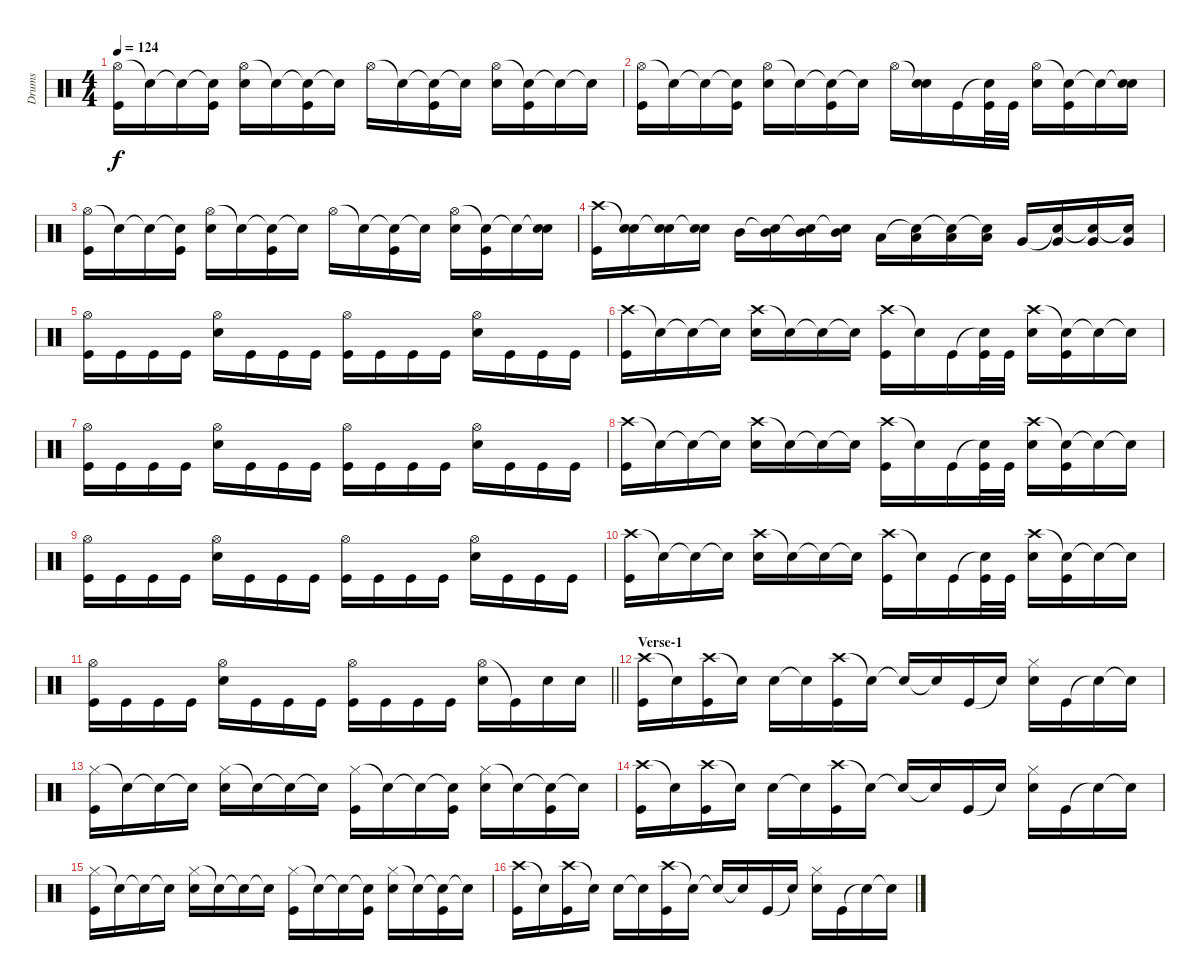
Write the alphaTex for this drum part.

\track ("Drums" "Drums") {instrument percussion}
\staff {score}
\articulation defaults
\ts (4 4)
\tempo 124
\clef neutral
\ks c
("Hi-Hat (open)" "Kick (hit)").16{dy f} "Snare (hit)"{t}.16 "Snare (hit)"{t}.16 ("Snare (hit)"{t} "Kick (hit)").16 ("Hi-Hat (open)" "Electric Snare (hit)").16 "Snare (hit)"{t}.16 ("Snare (hit)"{t} "Kick (hit)").16 "Snare (hit)"{t}.16 "Hi-Hat (open)".16 "Snare (hit)"{t}.16 ("Snare (hit)"{t} "Kick (hit)").16 "Snare (hit)"{t}.16 ("Hi-Hat (open)" "Electric Snare (hit)").16 ("Snare (hit)"{t} "Kick (hit)").16 "Snare (hit)"{t}.16 "Snare (hit)"{t}.16 |
("Hi-Hat (open)" "Kick (hit)").16 "Snare (hit)"{t}.16 "Snare (hit)"{t}.16 ("Snare (hit)"{t} "Kick (hit)").16 ("Hi-Hat (open)" "Electric Snare (hit)").16 "Snare (hit)"{t}.16 ("Snare (hit)"{t} "Kick (hit)").16 "Snare (hit)"{t}.16 "Hi-Hat (open)".16 ("Snare (hit)"{t} "Electric Snare (hit)").16 "Kick (hit)".16 ("Snare (hit)"{t} "Kick (hit)").32 "Kick (hit)".32 ("Hi-Hat (open)" "Electric Snare (hit)").16 ("Snare (hit)"{t} "Kick (hit)").16 "Snare (hit)"{t}.16 ("Snare (hit)"{t} "Electric Snare (hit)").16 |
("Hi-Hat (open)" "Kick (hit)").16 "Snare (hit)"{t}.16 "Snare (hit)"{t}.16 ("Snare (hit)"{t} "Kick (hit)").16 ("Hi-Hat (open)" "Electric Snare (hit)").16 "Snare (hit)"{t}.16 ("Snare (hit)"{t} "Kick (hit)").16 "Snare (hit)"{t}.16 "Hi-Hat (open)".16 "Snare (hit)"{t}.16 ("Snare (hit)"{t} "Kick (hit)").16 "Snare (hit)"{t}.16 ("Hi-Hat (open)" "Electric Snare (hit)").16 ("Snare (hit)"{t} "Kick (hit)").16 "Snare (hit)"{t}.16 ("Snare (hit)"{t} "Electric Snare (hit)").16 |
("Crash high (hit)" "Kick (hit)").16 ("Snare (hit)"{t} "Electric Snare (hit)").16 ("Snare (hit)"{t} "Electric Snare (hit)").16 ("Snare (hit)"{t} "Electric Snare (hit)").16 "Mid Tom (hit)".16 ("Snare (hit)"{t} "Mid Tom (hit)").16 ("Snare (hit)"{t} "Mid Tom (hit)").16 ("Snare (hit)"{t} "Mid Tom (hit)").16 "Low Tom (hit)".16 ("Snare (hit)"{t} "Low Tom (hit)").16 ("Snare (hit)"{t} "Low Tom (hit)").16 ("Snare (hit)"{t} "Low Tom (hit)").16 "Very Low Tom (hit)".16 ("Snare (hit)"{t} "Very Low Tom (hit)").16 ("Snare (hit)"{t} "Very Low Tom (hit)").16 ("Snare (hit)"{t} "Very Low Tom (hit)").16 |
("Hi-Hat (open)" "Kick (hit)").16 "Kick (hit)".16 "Kick (hit)".16 "Kick (hit)".16 ("Hi-Hat (open)" "Electric Snare (hit)").16 "Kick (hit)".16 "Kick (hit)".16 "Kick (hit)".16 ("Hi-Hat (open)" "Kick (hit)").16 "Kick (hit)".16 "Kick (hit)".16 "Kick (hit)".16 ("Hi-Hat (open)" "Electric Snare (hit)").16 "Kick (hit)".16 "Kick (hit)".16 "Kick (hit)".16 |
("Crash high (hit)" "Kick (hit)").16 "Snare (hit)"{t}.16 "Snare (hit)"{t}.16 "Snare (hit)"{t}.16 ("Crash high (hit)" "Electric Snare (hit)").16 "Snare (hit)"{t}.16 "Snare (hit)"{t}.16 "Snare (hit)"{t}.16 ("Crash high (hit)" "Kick (hit)").16 "Snare (hit)"{t}.16 "Kick (hit)".16 ("Snare (hit)"{t} "Kick (hit)").32 "Kick (hit)".32 ("Crash high (hit)" "Electric Snare (hit)").16 ("Snare (hit)"{t} "Kick (hit)").16 "Snare (hit)"{t}.16 "Snare (hit)"{t}.16 |
("Hi-Hat (open)" "Kick (hit)").16 "Kick (hit)".16 "Kick (hit)".16 "Kick (hit)".16 ("Hi-Hat (open)" "Electric Snare (hit)").16 "Kick (hit)".16 "Kick (hit)".16 "Kick (hit)".16 ("Hi-Hat (open)" "Kick (hit)").16 "Kick (hit)".16 "Kick (hit)".16 "Kick (hit)".16 ("Hi-Hat (open)" "Electric Snare (hit)").16 "Kick (hit)".16 "Kick (hit)".16 "Kick (hit)".16 |
("Crash high (hit)" "Kick (hit)").16 "Snare (hit)"{t}.16 "Snare (hit)"{t}.16 "Snare (hit)"{t}.16 ("Crash high (hit)" "Electric Snare (hit)").16 "Snare (hit)"{t}.16 "Snare (hit)"{t}.16 "Snare (hit)"{t}.16 ("Crash high (hit)" "Kick (hit)").16 "Snare (hit)"{t}.16 "Kick (hit)".16 ("Snare (hit)"{t} "Kick (hit)").32 "Kick (hit)".32 ("Crash high (hit)" "Electric Snare (hit)").16 ("Snare (hit)"{t} "Kick (hit)").16 "Snare (hit)"{t}.16 "Snare (hit)"{t}.16 |
("Hi-Hat (open)" "Kick (hit)").16 "Kick (hit)".16 "Kick (hit)".16 "Kick (hit)".16 ("Hi-Hat (open)" "Electric Snare (hit)").16 "Kick (hit)".16 "Kick (hit)".16 "Kick (hit)".16 ("Hi-Hat (open)" "Kick (hit)").16 "Kick (hit)".16 "Kick (hit)".16 "Kick (hit)".16 ("Hi-Hat (open)" "Electric Snare (hit)").16 "Kick (hit)".16 "Kick (hit)".16 "Kick (hit)".16 |
("Crash high (hit)" "Kick (hit)").16 "Snare (hit)"{t}.16 "Snare (hit)"{t}.16 "Snare (hit)"{t}.16 ("Crash high (hit)" "Electric Snare (hit)").16 "Snare (hit)"{t}.16 "Snare (hit)"{t}.16 "Snare (hit)"{t}.16 ("Crash high (hit)" "Kick (hit)").16 "Snare (hit)"{t}.16 "Kick (hit)".16 ("Snare (hit)"{t} "Kick (hit)").32 "Kick (hit)".32 ("Crash high (hit)" "Electric Snare (hit)").16 ("Snare (hit)"{t} "Kick (hit)").16 "Snare (hit)"{t}.16 "Snare (hit)"{t}.16 |
\barLineRight lightlight
("Hi-Hat (open)" "Kick (hit)").16 "Kick (hit)".16 "Kick (hit)".16 "Kick (hit)".16 ("Hi-Hat (open)" "Electric Snare (hit)").16 "Kick (hit)".16 "Kick (hit)".16 "Kick (hit)".16 ("Hi-Hat (open)" "Kick (hit)").16 "Kick (hit)".16 "Kick (hit)".16 "Kick (hit)".16 ("Hi-Hat (open)" "Electric Snare (hit)").16 "Kick (hit)"{t}.16 "Electric Snare (hit)".16 "Electric Snare (hit)".16 |
\section ("" "Verse-1")
("Crash high (hit)" "Kick (hit)").16 "Snare (hit)"{t}.16 ("Crash high (hit)" "Kick (hit)").16 "Snare (hit)"{t}.16 "Electric Snare (hit)".16 "Snare (hit)"{t}.16 ("Crash high (hit)" "Kick (hit)").16 "Snare (hit)"{t}.16 "Snare (hit)"{t}.16 "Snare (hit)"{t}.16 "Kick (hit)".16 "Snare (hit)"{t}.16 ("Hi-Hat (closed)" "Electric Snare (hit)").16 "Kick (hit)".16 "Snare (hit)"{t}.16 "Snare (hit)"{t}.16 |
("Hi-Hat (closed)" "Kick (hit)").16 "Snare (hit)"{t}.16 "Snare (hit)"{t}.16 "Snare (hit)"{t}.16 ("Hi-Hat (closed)" "Electric Snare (hit)").16 "Snare (hit)"{t}.16 "Snare (hit)"{t}.16 "Snare (hit)"{t}.16 ("Hi-Hat (closed)" "Kick (hit)").16 "Snare (hit)"{t}.16 "Snare (hit)"{t}.16 ("Snare (hit)"{t} "Kick (hit)").16 ("Hi-Hat (closed)" "Electric Snare (hit)").16 "Snare (hit)"{t}.16 ("Snare (hit)"{t} "Kick (hit)").16 "Snare (hit)"{t}.16 |
("Crash high (hit)" "Kick (hit)").16 "Snare (hit)"{t}.16 ("Crash high (hit)" "Kick (hit)").16 "Snare (hit)"{t}.16 "Electric Snare (hit)".16 "Snare (hit)"{t}.16 ("Crash high (hit)" "Kick (hit)").16 "Snare (hit)"{t}.16 "Snare (hit)"{t}.16 "Snare (hit)"{t}.16 "Kick (hit)".16 "Snare (hit)"{t}.16 ("Hi-Hat (closed)" "Electric Snare (hit)").16 "Kick (hit)".16 "Snare (hit)"{t}.16 "Snare (hit)"{t}.16 |
("Hi-Hat (closed)" "Kick (hit)").16 "Snare (hit)"{t}.16 "Snare (hit)"{t}.16 "Snare (hit)"{t}.16 ("Hi-Hat (closed)" "Electric Snare (hit)").16 "Snare (hit)"{t}.16 "Snare (hit)"{t}.16 "Snare (hit)"{t}.16 ("Hi-Hat (closed)" "Kick (hit)").16 "Snare (hit)"{t}.16 "Snare (hit)"{t}.16 ("Snare (hit)"{t} "Kick (hit)").16 ("Hi-Hat (closed)" "Electric Snare (hit)").16 "Snare (hit)"{t}.16 ("Snare (hit)"{t} "Kick (hit)").16 "Snare (hit)"{t}.16 |
("Crash high (hit)" "Kick (hit)").16 "Snare (hit)"{t}.16 ("Crash high (hit)" "Kick (hit)").16 "Snare (hit)"{t}.16 "Electric Snare (hit)".16 "Snare (hit)"{t}.16 ("Crash high (hit)" "Kick (hit)").16 "Snare (hit)"{t}.16 "Snare (hit)"{t}.16 "Snare (hit)"{t}.16 "Kick (hit)".16 "Snare (hit)"{t}.16 ("Hi-Hat (closed)" "Electric Snare (hit)").16 "Kick (hit)".16 "Snare (hit)"{t}.16 "Snare (hit)"{t}.16
